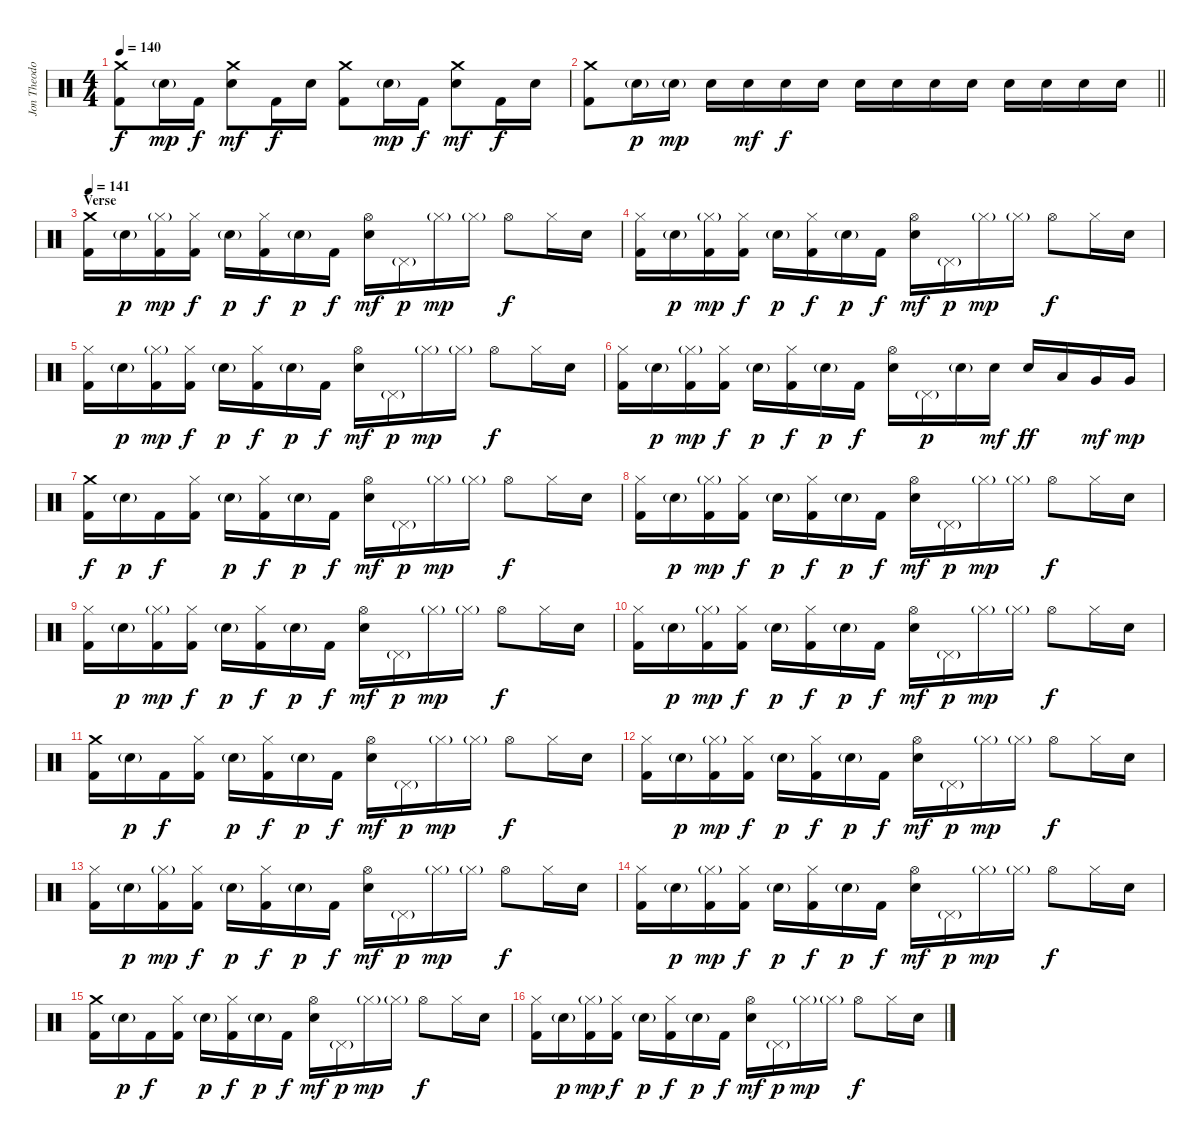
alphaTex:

\track ("Jon Theodore - Drums" "Jon Theodo") {instrument percussion}
\staff {score}
\articulation defaults
\ts (4 4)
\tempo 140
\clef neutral
\ks c
("Crash medium (hit)" "Kick (hit) 2").8{dy f} "Electric Snare (hit)"{g}.16{dy mp} "Kick (hit) 2".16{dy f} ("Crash medium (hit)" "Electric Snare (hit)").8{dy mf} "Kick (hit) 2".16{dy f} "Electric Snare (hit)".16 ("Crash medium (hit)" "Kick (hit) 2").8 "Electric Snare (hit)"{g}.16{dy mp} "Kick (hit) 2".16{dy f} ("Crash medium (hit)" "Electric Snare (hit)").8{dy mf} "Kick (hit) 2".16{dy f} "Electric Snare (hit)".16 |
\barLineRight lightlight
("Crash medium (hit)" "Kick (hit) 2").8 "Electric Snare (hit)"{g}.16{dy p} "Electric Snare (hit)"{g}.16{dy mp} "Electric Snare (hit)".16 "Electric Snare (hit)".16{dy mf} "Electric Snare (hit)".16{dy f} "Electric Snare (hit)".16 "Electric Snare (hit)".16 "Electric Snare (hit)".16 "Electric Snare (hit)".16 "Electric Snare (hit)".16 "Electric Snare (hit)".16 "Electric Snare (hit)".16 "Electric Snare (hit)".16 "Electric Snare (hit)".16 |
\section ("" "Verse")
\tempo 141
("Crash medium (hit)" "Kick (hit) 2").16 "Electric Snare (hit)"{g}.16{dy p} ("Hi-Hat (closed)"{g} "Kick (hit) 2").16{dy mp} ("Hi-Hat (closed)" "Kick (hit) 2").16{dy f} "Electric Snare (hit)"{g}.16{dy p} ("Hi-Hat (closed)" "Kick (hit) 2").16{dy f} "Electric Snare (hit)"{g}.16{dy p} "Kick (hit) 2".16{dy f} ("Hi-Hat (open)" "Electric Snare (hit)").16{dy mf} "Pedal Hi-Hat (hit)"{g}.16{dy p} "Hi-Hat (closed)"{g}.16{dy mp} "Hi-Hat (closed)"{g}.16 "Hi-Hat (open)".8{dy f} "Hi-Hat (closed)".16 "Electric Snare (hit)".16 |
("Hi-Hat (closed)" "Kick (hit) 2").16 "Electric Snare (hit)"{g}.16{dy p} ("Hi-Hat (closed)"{g} "Kick (hit) 2").16{dy mp} ("Hi-Hat (closed)" "Kick (hit) 2").16{dy f} "Electric Snare (hit)"{g}.16{dy p} ("Hi-Hat (closed)" "Kick (hit) 2").16{dy f} "Electric Snare (hit)"{g}.16{dy p} "Kick (hit) 2".16{dy f} ("Hi-Hat (open)" "Electric Snare (hit)").16{dy mf} "Pedal Hi-Hat (hit)"{g}.16{dy p} "Hi-Hat (closed)"{g}.16{dy mp} "Hi-Hat (closed)"{g}.16 "Hi-Hat (open)".8{dy f} "Hi-Hat (closed)".16 "Electric Snare (hit)".16 |
("Hi-Hat (closed)" "Kick (hit) 2").16 "Electric Snare (hit)"{g}.16{dy p} ("Hi-Hat (closed)"{g} "Kick (hit) 2").16{dy mp} ("Hi-Hat (closed)" "Kick (hit) 2").16{dy f} "Electric Snare (hit)"{g}.16{dy p} ("Hi-Hat (closed)" "Kick (hit) 2").16{dy f} "Electric Snare (hit)"{g}.16{dy p} "Kick (hit) 2".16{dy f} ("Hi-Hat (open)" "Electric Snare (hit)").16{dy mf} "Pedal Hi-Hat (hit)"{g}.16{dy p} "Hi-Hat (closed)"{g}.16{dy mp} "Hi-Hat (closed)"{g}.16 "Hi-Hat (open)".8{dy f} "Hi-Hat (closed)".16 "Electric Snare (hit)".16 |
("Hi-Hat (closed)" "Kick (hit) 2").16 "Electric Snare (hit)"{g}.16{dy p} ("Hi-Hat (closed)"{g} "Kick (hit) 2").16{dy mp} ("Hi-Hat (closed)" "Kick (hit) 2").16{dy f} "Electric Snare (hit)"{g}.16{dy p} ("Hi-Hat (closed)" "Kick (hit) 2").16{dy f} "Electric Snare (hit)"{g}.16{dy p} "Kick (hit) 2".16{dy f} ("Hi-Hat (open)" "Electric Snare (hit)").16 "Pedal Hi-Hat (hit)"{g}.16{dy p} "Electric Snare (hit)"{g}.16 "Electric Snare (hit)".16{dy mf} "Electric Snare (hit)".16{dy ff} "Low Tom (hit)".16 "Very Low Tom (hit)".16{dy mf} "Very Low Tom (hit)".16{dy mp} |
("Crash medium (hit)" "Kick (hit) 2").16{dy f} "Electric Snare (hit)"{g}.16{dy p} "Kick (hit) 2".16{dy f} ("Hi-Hat (closed)" "Kick (hit) 2").16 "Electric Snare (hit)"{g}.16{dy p} ("Hi-Hat (closed)" "Kick (hit) 2").16{dy f} "Electric Snare (hit)"{g}.16{dy p} "Kick (hit) 2".16{dy f} ("Hi-Hat (open)" "Electric Snare (hit)").16{dy mf} "Pedal Hi-Hat (hit)"{g}.16{dy p} "Hi-Hat (closed)"{g}.16{dy mp} "Hi-Hat (closed)"{g}.16 "Hi-Hat (open)".8{dy f} "Hi-Hat (closed)".16 "Electric Snare (hit)".16 |
("Hi-Hat (closed)" "Kick (hit) 2").16 "Electric Snare (hit)"{g}.16{dy p} ("Hi-Hat (closed)"{g} "Kick (hit) 2").16{dy mp} ("Hi-Hat (closed)" "Kick (hit) 2").16{dy f} "Electric Snare (hit)"{g}.16{dy p} ("Hi-Hat (closed)" "Kick (hit) 2").16{dy f} "Electric Snare (hit)"{g}.16{dy p} "Kick (hit) 2".16{dy f} ("Hi-Hat (open)" "Electric Snare (hit)").16{dy mf} "Pedal Hi-Hat (hit)"{g}.16{dy p} "Hi-Hat (closed)"{g}.16{dy mp} "Hi-Hat (closed)"{g}.16 "Hi-Hat (open)".8{dy f} "Hi-Hat (closed)".16 "Electric Snare (hit)".16 |
("Hi-Hat (closed)" "Kick (hit) 2").16 "Electric Snare (hit)"{g}.16{dy p} ("Hi-Hat (closed)"{g} "Kick (hit) 2").16{dy mp} ("Hi-Hat (closed)" "Kick (hit) 2").16{dy f} "Electric Snare (hit)"{g}.16{dy p} ("Hi-Hat (closed)" "Kick (hit) 2").16{dy f} "Electric Snare (hit)"{g}.16{dy p} "Kick (hit) 2".16{dy f} ("Hi-Hat (open)" "Electric Snare (hit)").16{dy mf} "Pedal Hi-Hat (hit)"{g}.16{dy p} "Hi-Hat (closed)"{g}.16{dy mp} "Hi-Hat (closed)"{g}.16 "Hi-Hat (open)".8{dy f} "Hi-Hat (closed)".16 "Electric Snare (hit)".16 |
("Hi-Hat (closed)" "Kick (hit) 2").16 "Electric Snare (hit)"{g}.16{dy p} ("Hi-Hat (closed)"{g} "Kick (hit) 2").16{dy mp} ("Hi-Hat (closed)" "Kick (hit) 2").16{dy f} "Electric Snare (hit)"{g}.16{dy p} ("Hi-Hat (closed)" "Kick (hit) 2").16{dy f} "Electric Snare (hit)"{g}.16{dy p} "Kick (hit) 2".16{dy f} ("Hi-Hat (open)" "Electric Snare (hit)").16{dy mf} "Pedal Hi-Hat (hit)"{g}.16{dy p} "Hi-Hat (closed)"{g}.16{dy mp} "Hi-Hat (closed)"{g}.16 "Hi-Hat (open)".8{dy f} "Hi-Hat (closed)".16 "Electric Snare (hit)".16 |
("Crash medium (hit)" "Kick (hit) 2").16 "Electric Snare (hit)"{g}.16{dy p} "Kick (hit) 2".16{dy f} ("Hi-Hat (closed)" "Kick (hit) 2").16 "Electric Snare (hit)"{g}.16{dy p} ("Hi-Hat (closed)" "Kick (hit) 2").16{dy f} "Electric Snare (hit)"{g}.16{dy p} "Kick (hit) 2".16{dy f} ("Hi-Hat (open)" "Electric Snare (hit)").16{dy mf} "Pedal Hi-Hat (hit)"{g}.16{dy p} "Hi-Hat (closed)"{g}.16{dy mp} "Hi-Hat (closed)"{g}.16 "Hi-Hat (open)".8{dy f} "Hi-Hat (closed)".16 "Electric Snare (hit)".16 |
("Hi-Hat (closed)" "Kick (hit) 2").16 "Electric Snare (hit)"{g}.16{dy p} ("Hi-Hat (closed)"{g} "Kick (hit) 2").16{dy mp} ("Hi-Hat (closed)" "Kick (hit) 2").16{dy f} "Electric Snare (hit)"{g}.16{dy p} ("Hi-Hat (closed)" "Kick (hit) 2").16{dy f} "Electric Snare (hit)"{g}.16{dy p} "Kick (hit) 2".16{dy f} ("Hi-Hat (open)" "Electric Snare (hit)").16{dy mf} "Pedal Hi-Hat (hit)"{g}.16{dy p} "Hi-Hat (closed)"{g}.16{dy mp} "Hi-Hat (closed)"{g}.16 "Hi-Hat (open)".8{dy f} "Hi-Hat (closed)".16 "Electric Snare (hit)".16 |
("Hi-Hat (closed)" "Kick (hit) 2").16 "Electric Snare (hit)"{g}.16{dy p} ("Hi-Hat (closed)"{g} "Kick (hit) 2").16{dy mp} ("Hi-Hat (closed)" "Kick (hit) 2").16{dy f} "Electric Snare (hit)"{g}.16{dy p} ("Hi-Hat (closed)" "Kick (hit) 2").16{dy f} "Electric Snare (hit)"{g}.16{dy p} "Kick (hit) 2".16{dy f} ("Hi-Hat (open)" "Electric Snare (hit)").16{dy mf} "Pedal Hi-Hat (hit)"{g}.16{dy p} "Hi-Hat (closed)"{g}.16{dy mp} "Hi-Hat (closed)"{g}.16 "Hi-Hat (open)".8{dy f} "Hi-Hat (closed)".16 "Electric Snare (hit)".16 |
("Hi-Hat (closed)" "Kick (hit) 2").16 "Electric Snare (hit)"{g}.16{dy p} ("Hi-Hat (closed)"{g} "Kick (hit) 2").16{dy mp} ("Hi-Hat (closed)" "Kick (hit) 2").16{dy f} "Electric Snare (hit)"{g}.16{dy p} ("Hi-Hat (closed)" "Kick (hit) 2").16{dy f} "Electric Snare (hit)"{g}.16{dy p} "Kick (hit) 2".16{dy f} ("Hi-Hat (open)" "Electric Snare (hit)").16{dy mf} "Pedal Hi-Hat (hit)"{g}.16{dy p} "Hi-Hat (closed)"{g}.16{dy mp} "Hi-Hat (closed)"{g}.16 "Hi-Hat (open)".8{dy f} "Hi-Hat (closed)".16 "Electric Snare (hit)".16 |
("Crash medium (hit)" "Kick (hit) 2").16 "Electric Snare (hit)"{g}.16{dy p} "Kick (hit) 2".16{dy f} ("Hi-Hat (closed)" "Kick (hit) 2").16 "Electric Snare (hit)"{g}.16{dy p} ("Hi-Hat (closed)" "Kick (hit) 2").16{dy f} "Electric Snare (hit)"{g}.16{dy p} "Kick (hit) 2".16{dy f} ("Hi-Hat (open)" "Electric Snare (hit)").16{dy mf} "Pedal Hi-Hat (hit)"{g}.16{dy p} "Hi-Hat (closed)"{g}.16{dy mp} "Hi-Hat (closed)"{g}.16 "Hi-Hat (open)".8{dy f} "Hi-Hat (closed)".16 "Electric Snare (hit)".16 |
("Hi-Hat (closed)" "Kick (hit) 2").16 "Electric Snare (hit)"{g}.16{dy p} ("Hi-Hat (closed)"{g} "Kick (hit) 2").16{dy mp} ("Hi-Hat (closed)" "Kick (hit) 2").16{dy f} "Electric Snare (hit)"{g}.16{dy p} ("Hi-Hat (closed)" "Kick (hit) 2").16{dy f} "Electric Snare (hit)"{g}.16{dy p} "Kick (hit) 2".16{dy f} ("Hi-Hat (open)" "Electric Snare (hit)").16{dy mf} "Pedal Hi-Hat (hit)"{g}.16{dy p} "Hi-Hat (closed)"{g}.16{dy mp} "Hi-Hat (closed)"{g}.16 "Hi-Hat (open)".8{dy f} "Hi-Hat (closed)".16 "Electric Snare (hit)".16
